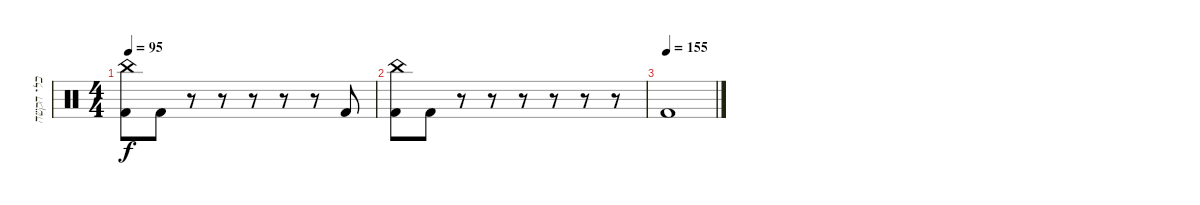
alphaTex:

\track ("כלי הקשה" "כלי הקשה") {instrument percussion}
\staff {score}
\articulation defaults
\ts (4 4)
\tempo 95
\clef neutral
\ks c
("China (hit)" "Kick (hit) 2").8{dy f} "Kick (hit) 2".8 r.8 r.8 r.8 r.8 r.8 "Kick (hit) 2".8 |
("China (hit)" "Kick (hit) 2").8 "Kick (hit) 2".8 r.8 r.8 r.8 r.8 r.8 r.8 |
\tempo (155)
"Kick (hit) 2".1
